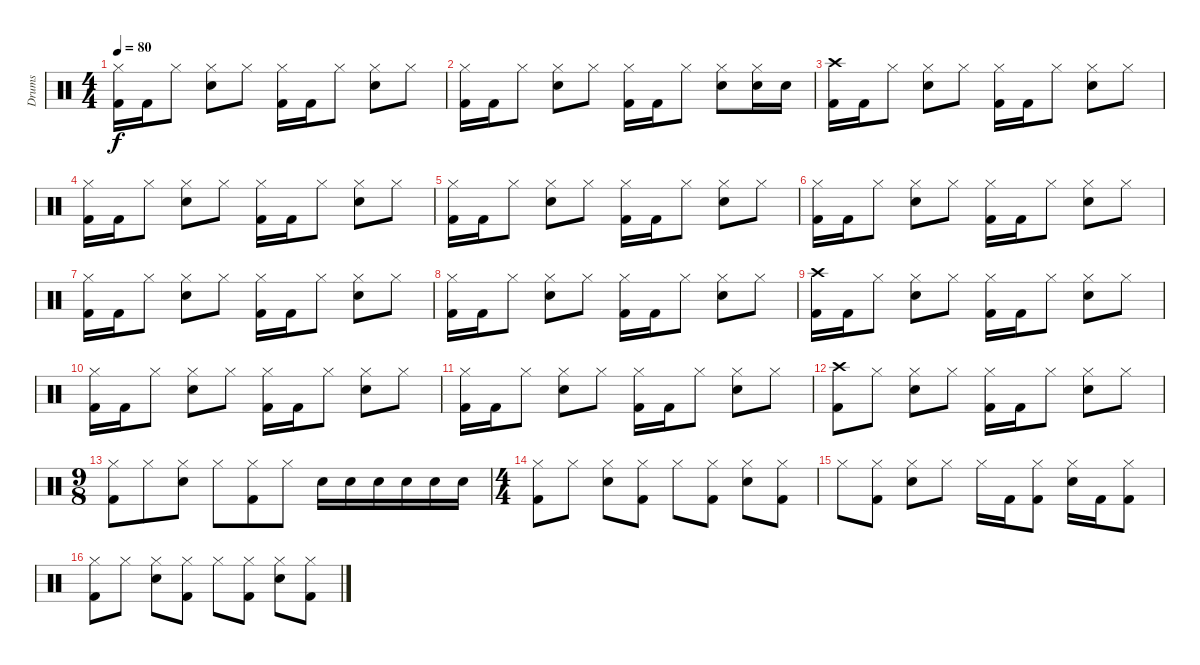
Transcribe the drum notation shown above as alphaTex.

\track ("Drums         " "Drums     ") {instrument percussion}
\staff {score}
\articulation defaults
\ts (4 4)
\tempo 80
\clef neutral
\ks c
("Kick (hit) 2" "Hi-Hat (closed)").16{dy f} "Kick (hit) 2".16 "Hi-Hat (closed)".8 ("Snare (hit) 2" "Hi-Hat (closed)").8 "Hi-Hat (closed)".8 ("Kick (hit) 2" "Hi-Hat (closed)").16 "Kick (hit) 2".16 "Hi-Hat (closed)".8 ("Snare (hit) 2" "Hi-Hat (closed)").8 "Hi-Hat (closed)".8 |
("Kick (hit) 2" "Hi-Hat (closed)").16 "Kick (hit) 2".16 "Hi-Hat (closed)".8 ("Snare (hit) 2" "Hi-Hat (closed)").8 "Hi-Hat (closed)".8 ("Kick (hit) 2" "Hi-Hat (closed)").16 "Kick (hit) 2".16 "Hi-Hat (closed)".8 ("Snare (hit) 2" "Hi-Hat (closed)").8 ("Snare (hit) 2" "Hi-Hat (closed)").16 "Snare (hit) 2".16 |
("Kick (hit) 2" "Crash high (hit)").16 "Kick (hit) 2".16 "Hi-Hat (closed)".8 ("Snare (hit) 2" "Hi-Hat (closed)").8 "Hi-Hat (closed)".8 ("Kick (hit) 2" "Hi-Hat (closed)").16 "Kick (hit) 2".16 "Hi-Hat (closed)".8 ("Snare (hit) 2" "Hi-Hat (closed)").8 "Hi-Hat (closed)".8 |
("Kick (hit) 2" "Hi-Hat (closed)").16 "Kick (hit) 2".16 "Hi-Hat (closed)".8 ("Snare (hit) 2" "Hi-Hat (closed)").8 "Hi-Hat (closed)".8 ("Kick (hit) 2" "Hi-Hat (closed)").16 "Kick (hit) 2".16 "Hi-Hat (closed)".8 ("Snare (hit) 2" "Hi-Hat (closed)").8 "Hi-Hat (closed)".8 |
("Kick (hit) 2" "Hi-Hat (closed)").16 "Kick (hit) 2".16 "Hi-Hat (closed)".8 ("Snare (hit) 2" "Hi-Hat (closed)").8 "Hi-Hat (closed)".8 ("Kick (hit) 2" "Hi-Hat (closed)").16 "Kick (hit) 2".16 "Hi-Hat (closed)".8 ("Snare (hit) 2" "Hi-Hat (closed)").8 "Hi-Hat (closed)".8 |
("Kick (hit) 2" "Hi-Hat (closed)").16 "Kick (hit) 2".16 "Hi-Hat (closed)".8 ("Snare (hit) 2" "Hi-Hat (closed)").8 "Hi-Hat (closed)".8 ("Kick (hit) 2" "Hi-Hat (closed)").16 "Kick (hit) 2".16 "Hi-Hat (closed)".8 ("Snare (hit) 2" "Hi-Hat (closed)").8 "Hi-Hat (closed)".8 |
("Kick (hit) 2" "Hi-Hat (closed)").16 "Kick (hit) 2".16 "Hi-Hat (closed)".8 ("Snare (hit) 2" "Hi-Hat (closed)").8 "Hi-Hat (closed)".8 ("Kick (hit) 2" "Hi-Hat (closed)").16 "Kick (hit) 2".16 "Hi-Hat (closed)".8 ("Snare (hit) 2" "Hi-Hat (closed)").8 "Hi-Hat (closed)".8 |
("Kick (hit) 2" "Hi-Hat (closed)").16 "Kick (hit) 2".16 "Hi-Hat (closed)".8 ("Snare (hit) 2" "Hi-Hat (closed)").8 "Hi-Hat (closed)".8 ("Kick (hit) 2" "Hi-Hat (closed)").16 "Kick (hit) 2".16 "Hi-Hat (closed)".8 ("Snare (hit) 2" "Hi-Hat (closed)").8 "Hi-Hat (closed)".8 |
("Kick (hit) 2" "Crash high (hit)").16 "Kick (hit) 2".16 "Hi-Hat (closed)".8 ("Snare (hit) 2" "Hi-Hat (closed)").8 "Hi-Hat (closed)".8 ("Kick (hit) 2" "Hi-Hat (closed)").16 "Kick (hit) 2".16 "Hi-Hat (closed)".8 ("Snare (hit) 2" "Hi-Hat (closed)").8 "Hi-Hat (closed)".8 |
("Kick (hit) 2" "Hi-Hat (closed)").16 "Kick (hit) 2".16 "Hi-Hat (closed)".8 ("Snare (hit) 2" "Hi-Hat (closed)").8 "Hi-Hat (closed)".8 ("Kick (hit) 2" "Hi-Hat (closed)").16 "Kick (hit) 2".16 "Hi-Hat (closed)".8 ("Snare (hit) 2" "Hi-Hat (closed)").8 "Hi-Hat (closed)".8 |
("Kick (hit) 2" "Hi-Hat (closed)").16 "Kick (hit) 2".16 "Hi-Hat (closed)".8 ("Snare (hit) 2" "Hi-Hat (closed)").8 "Hi-Hat (closed)".8 ("Kick (hit) 2" "Hi-Hat (closed)").16 "Kick (hit) 2".16 "Hi-Hat (closed)".8 ("Snare (hit) 2" "Hi-Hat (closed)").8 "Hi-Hat (closed)".8 |
("Kick (hit) 2" "Crash high (hit)").8 "Hi-Hat (closed)".8 ("Snare (hit) 2" "Hi-Hat (closed)").8 "Hi-Hat (closed)".8 ("Kick (hit) 2" "Hi-Hat (closed)").16 "Kick (hit) 2".16 "Hi-Hat (closed)".8 ("Snare (hit) 2" "Hi-Hat (closed)").8 "Hi-Hat (closed)".8 |
\ts (9 8)
("Kick (hit) 2" "Hi-Hat (closed)").8 "Hi-Hat (closed)".8 ("Snare (hit) 2" "Hi-Hat (closed)").8 "Hi-Hat (closed)".8 ("Kick (hit) 2" "Hi-Hat (closed)").8 "Hi-Hat (closed)".8 "Snare (hit) 2".16 "Snare (hit) 2".16 "Snare (hit) 2".16 "Snare (hit) 2".16 "Snare (hit) 2".16 "Snare (hit) 2".16 |
\ts (4 4)
("Kick (hit) 2" "Hi-Hat (closed)").8 "Hi-Hat (closed)".8 ("Snare (hit) 2" "Hi-Hat (closed)").8 ("Kick (hit) 2" "Hi-Hat (closed)").8 "Hi-Hat (closed)".8 ("Kick (hit) 2" "Hi-Hat (closed)").8 ("Snare (hit) 2" "Hi-Hat (closed)").8 ("Kick (hit) 2" "Hi-Hat (closed)").8 |
"Hi-Hat (closed)".8 ("Kick (hit) 2" "Hi-Hat (closed)").8 ("Snare (hit) 2" "Hi-Hat (closed)").8 "Hi-Hat (closed)".8 "Hi-Hat (closed)".16 "Kick (hit) 2".16 ("Kick (hit) 2" "Hi-Hat (closed)").8 ("Snare (hit) 2" "Hi-Hat (closed)").16 "Kick (hit) 2".16 ("Kick (hit) 2" "Hi-Hat (closed)").8 |
("Kick (hit) 2" "Hi-Hat (closed)").8 "Hi-Hat (closed)".8 ("Snare (hit) 2" "Hi-Hat (closed)").8 ("Kick (hit) 2" "Hi-Hat (closed)").8 "Hi-Hat (closed)".8 ("Kick (hit) 2" "Hi-Hat (closed)").8 ("Snare (hit) 2" "Hi-Hat (closed)").8 ("Kick (hit) 2" "Hi-Hat (closed)").8
